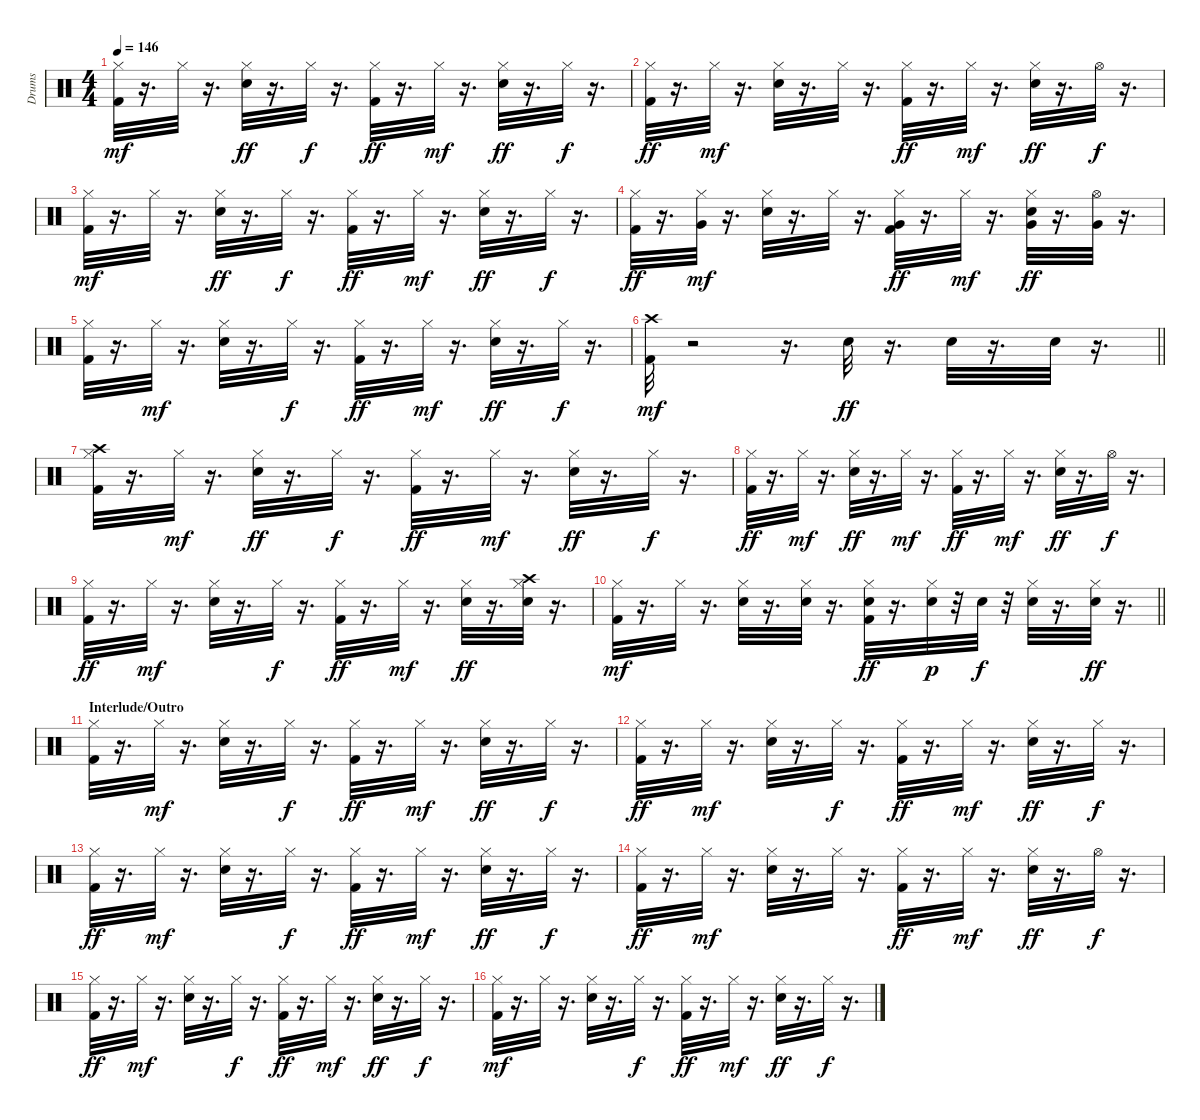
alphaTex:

\track ("Drums" "Drums") {instrument percussion}
\staff {score}
\articulation defaults
\ts (4 4)
\tempo 146
\clef neutral
\ks c
("Kick (hit) 2" "Hi-Hat (closed)").32{dy mf} r.16{d} "Hi-Hat (closed)".32 r.16{d} ("Hi-Hat (closed)" "Snare (hit) 2").32{dy ff} r.16{d} "Hi-Hat (closed)".32{dy f} r.16{d} ("Kick (hit) 2" "Hi-Hat (closed)").32{dy ff} r.16{d} "Hi-Hat (closed)".32{dy mf} r.16{d} ("Snare (hit) 2" "Hi-Hat (closed)").32{dy ff} r.16{d} "Hi-Hat (closed)".32{dy f} r.16{d} |
("Kick (hit) 2" "Hi-Hat (closed)").32{dy ff} r.16{d} "Hi-Hat (closed)".32{dy mf} r.16{d} ("Snare (hit) 2" "Hi-Hat (closed)").32 r.16{d} "Hi-Hat (closed)".32 r.16{d} ("Kick (hit) 2" "Hi-Hat (closed)").32{dy ff} r.16{d} "Hi-Hat (closed)".32{dy mf} r.16{d} ("Snare (hit) 2" "Hi-Hat (closed)").32{dy ff} r.16{d} "Hi-Hat (open)".32{dy f} r.16{d} |
("Kick (hit) 2" "Hi-Hat (closed)").32{dy mf} r.16{d} "Hi-Hat (closed)".32 r.16{d} ("Hi-Hat (closed)" "Snare (hit) 2").32{dy ff} r.16{d} "Hi-Hat (closed)".32{dy f} r.16{d} ("Hi-Hat (closed)" "Kick (hit) 2").32{dy ff} r.16{d} "Hi-Hat (closed)".32{dy mf} r.16{d} ("Hi-Hat (closed)" "Snare (hit) 2").32{dy ff} r.16{d} "Hi-Hat (closed)".32{dy f} r.16{d} |
("Hi-Hat (closed)" "Kick (hit) 2").32{dy ff} r.16{d} ("Hi-Hat (closed)" "Very Low Tom (hit)").32{dy mf} r.16{d} ("Snare (hit) 2" "Hi-Hat (closed)").32 r.16{d} "Hi-Hat (closed)".32 r.16{d} ("Kick (hit) 2" "Hi-Hat (closed)" "Very Low Tom (hit)").32{dy ff} r.16{d} "Hi-Hat (closed)".32{dy mf} r.16{d} ("Hi-Hat (closed)" "Snare (hit) 2" "Very Low Tom (hit)").32{dy ff} r.16{d} ("Very Low Tom (hit)" "Hi-Hat (open)").32 r.16{d} |
("Hi-Hat (closed)" "Kick (hit) 2").32 r.16{d} "Hi-Hat (closed)".32{dy mf} r.16{d} ("Snare (hit) 2" "Hi-Hat (closed)").32 r.16{d} "Hi-Hat (closed)".32{dy f} r.16{d} ("Hi-Hat (closed)" "Kick (hit) 2").32{dy ff} r.16{d} "Hi-Hat (closed)".32{dy mf} r.16{d} ("Hi-Hat (closed)" "Snare (hit) 2").32{dy ff} r.16{d} "Hi-Hat (closed)".32{dy f} r.16{d} |
\barLineRight lightlight
("Kick (hit) 2" "Crash high (hit)").32{dy mf} r.2 r.16{d} "Snare (hit) 2".32{dy ff} r.16{d} "Snare (hit) 2".32 r.16{d} "Snare (hit) 2".32 r.16{d} |
("Hi-Hat (closed)" "Kick (hit) 2" "Crash high (hit)").32 r.16{d} "Hi-Hat (closed)".32{dy mf} r.16{d} ("Hi-Hat (closed)" "Snare (hit) 2").32{dy ff} r.16{d} "Hi-Hat (closed)".32{dy f} r.16{d} ("Kick (hit) 2" "Hi-Hat (closed)").32{dy ff} r.16{d} "Hi-Hat (closed)".32{dy mf} r.16{d} ("Hi-Hat (closed)" "Snare (hit) 2").32{dy ff} r.16{d} "Hi-Hat (closed)".32{dy f} r.16{d} |
("Kick (hit) 2" "Hi-Hat (closed)").32{dy ff} r.16{d} "Hi-Hat (closed)".32{dy mf} r.16{d} ("Hi-Hat (closed)" "Snare (hit) 2").32{dy ff} r.16{d} "Hi-Hat (closed)".32{dy mf} r.16{d} ("Kick (hit) 2" "Hi-Hat (closed)").32{dy ff} r.16{d} "Hi-Hat (closed)".32{dy mf} r.16{d} ("Hi-Hat (closed)" "Snare (hit) 2").32{dy ff} r.16{d} "Hi-Hat (open)".32{dy f} r.16{d} |
("Hi-Hat (closed)" "Kick (hit) 2").32{dy ff} r.16{d} "Hi-Hat (closed)".32{dy mf} r.16{d} ("Snare (hit) 2" "Hi-Hat (closed)").32 r.16{d} "Hi-Hat (closed)".32{dy f} r.16{d} ("Kick (hit) 2" "Hi-Hat (closed)").32{dy ff} r.16{d} "Hi-Hat (closed)".32{dy mf} r.16{d} ("Snare (hit) 2" "Hi-Hat (closed)").32{dy ff} r.16{d} ("Hi-Hat (closed)" "Snare (hit) 2" "Crash high (hit)").32 r.16{d} |
\barLineRight lightlight
("Kick (hit) 2" "Hi-Hat (closed)").32{dy mf} r.16{d} "Hi-Hat (closed)".32 r.16{d} ("Hi-Hat (closed)" "Snare (hit) 2").32 r.16{d} ("Hi-Hat (closed)" "Snare (hit) 2").32 r.16{d} ("Kick (hit) 2" "Snare (hit) 2" "Hi-Hat (closed)").32{dy ff} r.16{d} ("Hi-Hat (closed)" "Snare (hit) 2").32{dy p} r.32 "Snare (hit) 2".32{dy f} r.32 ("Snare (hit) 2" "Hi-Hat (closed)").32 r.16{d} ("Snare (hit) 2" "Hi-Hat (closed)").32{dy ff} r.16{d} |
\section ("" "Interlude/Outro")
("Hi-Hat (closed)" "Kick (hit) 2").32 r.16{d} "Hi-Hat (closed)".32{dy mf} r.16{d} ("Snare (hit) 2" "Hi-Hat (closed)").32 r.16{d} "Hi-Hat (closed)".32{dy f} r.16{d} ("Hi-Hat (closed)" "Kick (hit) 2").32{dy ff} r.16{d} "Hi-Hat (closed)".32{dy mf} r.16{d} ("Hi-Hat (closed)" "Snare (hit) 2").32{dy ff} r.16{d} "Hi-Hat (closed)".32{dy f} r.16{d} |
("Hi-Hat (closed)" "Kick (hit) 2").32{dy ff} r.16{d} "Hi-Hat (closed)".32{dy mf} r.16{d} ("Snare (hit) 2" "Hi-Hat (closed)").32 r.16{d} "Hi-Hat (closed)".32{dy f} r.16{d} ("Hi-Hat (closed)" "Kick (hit) 2").32{dy ff} r.16{d} "Hi-Hat (closed)".32{dy mf} r.16{d} ("Snare (hit) 2" "Hi-Hat (closed)").32{dy ff} r.16{d} "Hi-Hat (closed)".32{dy f} r.16{d} |
("Hi-Hat (closed)" "Kick (hit) 2").32{dy ff} r.16{d} "Hi-Hat (closed)".32{dy mf} r.16{d} ("Snare (hit) 2" "Hi-Hat (closed)").32 r.16{d} "Hi-Hat (closed)".32{dy f} r.16{d} ("Kick (hit) 2" "Hi-Hat (closed)").32{dy ff} r.16{d} "Hi-Hat (closed)".32{dy mf} r.16{d} ("Hi-Hat (closed)" "Snare (hit) 2").32{dy ff} r.16{d} "Hi-Hat (closed)".32{dy f} r.16{d} |
("Hi-Hat (closed)" "Kick (hit) 2").32{dy ff} r.16{d} "Hi-Hat (closed)".32{dy mf} r.16{d} ("Snare (hit) 2" "Hi-Hat (closed)").32 r.16{d} "Hi-Hat (closed)".32 r.16{d} ("Kick (hit) 2" "Hi-Hat (closed)").32{dy ff} r.16{d} "Hi-Hat (closed)".32{dy mf} r.16{d} ("Snare (hit) 2" "Hi-Hat (closed)").32{dy ff} r.16{d} "Hi-Hat (open)".32{dy f} r.16{d} |
("Hi-Hat (closed)" "Kick (hit) 2").32{dy ff} r.16{d} "Hi-Hat (closed)".32{dy mf} r.16{d} ("Snare (hit) 2" "Hi-Hat (closed)").32 r.16{d} "Hi-Hat (closed)".32{dy f} r.16{d} ("Hi-Hat (closed)" "Kick (hit) 2").32{dy ff} r.16{d} "Hi-Hat (closed)".32{dy mf} r.16{d} ("Snare (hit) 2" "Hi-Hat (closed)").32{dy ff} r.16{d} "Hi-Hat (closed)".32{dy f} r.16{d} |
("Kick (hit) 2" "Hi-Hat (closed)").32{dy mf} r.16{d} "Hi-Hat (closed)".32 r.16{d} ("Snare (hit) 2" "Hi-Hat (closed)").32 r.16{d} "Hi-Hat (closed)".32{dy f} r.16{d} ("Hi-Hat (closed)" "Kick (hit) 2").32{dy ff} r.16{d} "Hi-Hat (closed)".32{dy mf} r.16{d} ("Hi-Hat (closed)" "Snare (hit) 2").32{dy ff} r.16{d} "Hi-Hat (closed)".32{dy f} r.16{d}
